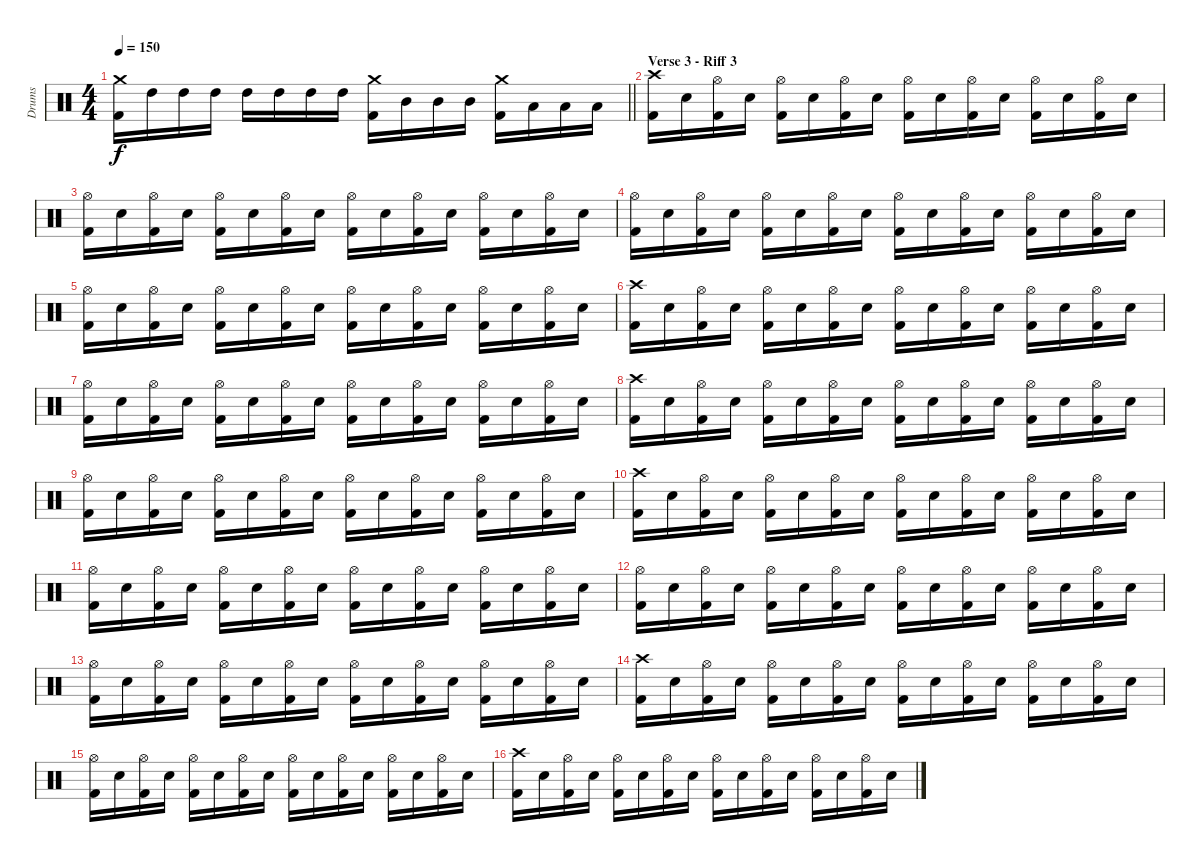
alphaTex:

\track ("Drums" "Drums") {instrument percussion}
\staff {score}
\articulation defaults
\ts (4 4)
\tempo 150
\clef neutral
\barLineRight lightlight
\ks c
("Crash medium (hit)" "Kick (hit) 2").16{dy f} "High Tom (hit)".16 "High Tom (hit)".16 "High Tom (hit)".16 "High Tom (hit)".16 "High Tom (hit)".16 "High Tom (hit)".16 "High Tom (hit)".16 ("Crash medium (hit)" "Kick (hit) 2").16 "Mid Tom (hit)".16 "Mid Tom (hit)".16 "Mid Tom (hit)".16 ("Crash medium (hit)" "Kick (hit) 2").16 "Low Tom (hit)".16 "Low Tom (hit)".16 "Low Tom (hit)".16 |
\section ("" "Verse 3 - Riff 3")
("Crash high (hit)" "Kick (hit) 2").16 "Electric Snare (hit)".16 ("Hi-Hat (open)" "Kick (hit) 2").16 "Electric Snare (hit)".16 ("Hi-Hat (open)" "Kick (hit) 2").16 "Electric Snare (hit)".16 ("Hi-Hat (open)" "Kick (hit) 2").16 "Electric Snare (hit)".16 ("Hi-Hat (open)" "Kick (hit) 2").16 "Electric Snare (hit)".16 ("Hi-Hat (open)" "Kick (hit) 2").16 "Electric Snare (hit)".16 ("Hi-Hat (open)" "Kick (hit) 2").16 "Electric Snare (hit)".16 ("Hi-Hat (open)" "Kick (hit) 2").16 "Electric Snare (hit)".16 |
("Hi-Hat (open)" "Kick (hit) 2").16 "Electric Snare (hit)".16 ("Hi-Hat (open)" "Kick (hit) 2").16 "Electric Snare (hit)".16 ("Hi-Hat (open)" "Kick (hit) 2").16 "Electric Snare (hit)".16 ("Hi-Hat (open)" "Kick (hit) 2").16 "Electric Snare (hit)".16 ("Hi-Hat (open)" "Kick (hit) 2").16 "Electric Snare (hit)".16 ("Hi-Hat (open)" "Kick (hit) 2").16 "Electric Snare (hit)".16 ("Hi-Hat (open)" "Kick (hit) 2").16 "Electric Snare (hit)".16 ("Hi-Hat (open)" "Kick (hit) 2").16 "Electric Snare (hit)".16 |
("Hi-Hat (open)" "Kick (hit) 2").16 "Electric Snare (hit)".16 ("Hi-Hat (open)" "Kick (hit) 2").16 "Electric Snare (hit)".16 ("Hi-Hat (open)" "Kick (hit) 2").16 "Electric Snare (hit)".16 ("Hi-Hat (open)" "Kick (hit) 2").16 "Electric Snare (hit)".16 ("Hi-Hat (open)" "Kick (hit) 2").16 "Electric Snare (hit)".16 ("Hi-Hat (open)" "Kick (hit) 2").16 "Electric Snare (hit)".16 ("Hi-Hat (open)" "Kick (hit) 2").16 "Electric Snare (hit)".16 ("Hi-Hat (open)" "Kick (hit) 2").16 "Electric Snare (hit)".16 |
("Hi-Hat (open)" "Kick (hit) 2").16 "Electric Snare (hit)".16 ("Hi-Hat (open)" "Kick (hit) 2").16 "Electric Snare (hit)".16 ("Hi-Hat (open)" "Kick (hit) 2").16 "Electric Snare (hit)".16 ("Hi-Hat (open)" "Kick (hit) 2").16 "Electric Snare (hit)".16 ("Hi-Hat (open)" "Kick (hit) 2").16 "Electric Snare (hit)".16 ("Hi-Hat (open)" "Kick (hit) 2").16 "Electric Snare (hit)".16 ("Hi-Hat (open)" "Kick (hit) 2").16 "Electric Snare (hit)".16 ("Hi-Hat (open)" "Kick (hit) 2").16 "Electric Snare (hit)".16 |
("Crash high (hit)" "Kick (hit) 2").16 "Electric Snare (hit)".16 ("Hi-Hat (open)" "Kick (hit) 2").16 "Electric Snare (hit)".16 ("Hi-Hat (open)" "Kick (hit) 2").16 "Electric Snare (hit)".16 ("Hi-Hat (open)" "Kick (hit) 2").16 "Electric Snare (hit)".16 ("Hi-Hat (open)" "Kick (hit) 2").16 "Electric Snare (hit)".16 ("Hi-Hat (open)" "Kick (hit) 2").16 "Electric Snare (hit)".16 ("Hi-Hat (open)" "Kick (hit) 2").16 "Electric Snare (hit)".16 ("Hi-Hat (open)" "Kick (hit) 2").16 "Electric Snare (hit)".16 |
("Hi-Hat (open)" "Kick (hit) 2").16 "Electric Snare (hit)".16 ("Hi-Hat (open)" "Kick (hit) 2").16 "Electric Snare (hit)".16 ("Hi-Hat (open)" "Kick (hit) 2").16 "Electric Snare (hit)".16 ("Hi-Hat (open)" "Kick (hit) 2").16 "Electric Snare (hit)".16 ("Hi-Hat (open)" "Kick (hit) 2").16 "Electric Snare (hit)".16 ("Hi-Hat (open)" "Kick (hit) 2").16 "Electric Snare (hit)".16 ("Hi-Hat (open)" "Kick (hit) 2").16 "Electric Snare (hit)".16 ("Hi-Hat (open)" "Kick (hit) 2").16 "Electric Snare (hit)".16 |
("Crash high (hit)" "Kick (hit) 2").16 "Electric Snare (hit)".16 ("Hi-Hat (open)" "Kick (hit) 2").16 "Electric Snare (hit)".16 ("Hi-Hat (open)" "Kick (hit) 2").16 "Electric Snare (hit)".16 ("Hi-Hat (open)" "Kick (hit) 2").16 "Electric Snare (hit)".16 ("Hi-Hat (open)" "Kick (hit) 2").16 "Electric Snare (hit)".16 ("Hi-Hat (open)" "Kick (hit) 2").16 "Electric Snare (hit)".16 ("Hi-Hat (open)" "Kick (hit) 2").16 "Electric Snare (hit)".16 ("Hi-Hat (open)" "Kick (hit) 2").16 "Electric Snare (hit)".16 |
("Hi-Hat (open)" "Kick (hit) 2").16 "Electric Snare (hit)".16 ("Hi-Hat (open)" "Kick (hit) 2").16 "Electric Snare (hit)".16 ("Hi-Hat (open)" "Kick (hit) 2").16 "Electric Snare (hit)".16 ("Hi-Hat (open)" "Kick (hit) 2").16 "Electric Snare (hit)".16 ("Hi-Hat (open)" "Kick (hit) 2").16 "Electric Snare (hit)".16 ("Hi-Hat (open)" "Kick (hit) 2").16 "Electric Snare (hit)".16 ("Hi-Hat (open)" "Kick (hit) 2").16 "Electric Snare (hit)".16 ("Hi-Hat (open)" "Kick (hit) 2").16 "Electric Snare (hit)".16 |
("Crash high (hit)" "Kick (hit) 2").16 "Electric Snare (hit)".16 ("Hi-Hat (open)" "Kick (hit) 2").16 "Electric Snare (hit)".16 ("Hi-Hat (open)" "Kick (hit) 2").16 "Electric Snare (hit)".16 ("Hi-Hat (open)" "Kick (hit) 2").16 "Electric Snare (hit)".16 ("Hi-Hat (open)" "Kick (hit) 2").16 "Electric Snare (hit)".16 ("Hi-Hat (open)" "Kick (hit) 2").16 "Electric Snare (hit)".16 ("Hi-Hat (open)" "Kick (hit) 2").16 "Electric Snare (hit)".16 ("Hi-Hat (open)" "Kick (hit) 2").16 "Electric Snare (hit)".16 |
("Hi-Hat (open)" "Kick (hit) 2").16 "Electric Snare (hit)".16 ("Hi-Hat (open)" "Kick (hit) 2").16 "Electric Snare (hit)".16 ("Hi-Hat (open)" "Kick (hit) 2").16 "Electric Snare (hit)".16 ("Hi-Hat (open)" "Kick (hit) 2").16 "Electric Snare (hit)".16 ("Hi-Hat (open)" "Kick (hit) 2").16 "Electric Snare (hit)".16 ("Hi-Hat (open)" "Kick (hit) 2").16 "Electric Snare (hit)".16 ("Hi-Hat (open)" "Kick (hit) 2").16 "Electric Snare (hit)".16 ("Hi-Hat (open)" "Kick (hit) 2").16 "Electric Snare (hit)".16 |
("Hi-Hat (open)" "Kick (hit) 2").16 "Electric Snare (hit)".16 ("Hi-Hat (open)" "Kick (hit) 2").16 "Electric Snare (hit)".16 ("Hi-Hat (open)" "Kick (hit) 2").16 "Electric Snare (hit)".16 ("Hi-Hat (open)" "Kick (hit) 2").16 "Electric Snare (hit)".16 ("Hi-Hat (open)" "Kick (hit) 2").16 "Electric Snare (hit)".16 ("Hi-Hat (open)" "Kick (hit) 2").16 "Electric Snare (hit)".16 ("Hi-Hat (open)" "Kick (hit) 2").16 "Electric Snare (hit)".16 ("Hi-Hat (open)" "Kick (hit) 2").16 "Electric Snare (hit)".16 |
("Hi-Hat (open)" "Kick (hit) 2").16 "Electric Snare (hit)".16 ("Hi-Hat (open)" "Kick (hit) 2").16 "Electric Snare (hit)".16 ("Hi-Hat (open)" "Kick (hit) 2").16 "Electric Snare (hit)".16 ("Hi-Hat (open)" "Kick (hit) 2").16 "Electric Snare (hit)".16 ("Hi-Hat (open)" "Kick (hit) 2").16 "Electric Snare (hit)".16 ("Hi-Hat (open)" "Kick (hit) 2").16 "Electric Snare (hit)".16 ("Hi-Hat (open)" "Kick (hit) 2").16 "Electric Snare (hit)".16 ("Hi-Hat (open)" "Kick (hit) 2").16 "Electric Snare (hit)".16 |
("Crash high (hit)" "Kick (hit) 2").16 "Electric Snare (hit)".16 ("Hi-Hat (open)" "Kick (hit) 2").16 "Electric Snare (hit)".16 ("Hi-Hat (open)" "Kick (hit) 2").16 "Electric Snare (hit)".16 ("Hi-Hat (open)" "Kick (hit) 2").16 "Electric Snare (hit)".16 ("Hi-Hat (open)" "Kick (hit) 2").16 "Electric Snare (hit)".16 ("Hi-Hat (open)" "Kick (hit) 2").16 "Electric Snare (hit)".16 ("Hi-Hat (open)" "Kick (hit) 2").16 "Electric Snare (hit)".16 ("Hi-Hat (open)" "Kick (hit) 2").16 "Electric Snare (hit)".16 |
("Hi-Hat (open)" "Kick (hit) 2").16 "Electric Snare (hit)".16 ("Hi-Hat (open)" "Kick (hit) 2").16 "Electric Snare (hit)".16 ("Hi-Hat (open)" "Kick (hit) 2").16 "Electric Snare (hit)".16 ("Hi-Hat (open)" "Kick (hit) 2").16 "Electric Snare (hit)".16 ("Hi-Hat (open)" "Kick (hit) 2").16 "Electric Snare (hit)".16 ("Hi-Hat (open)" "Kick (hit) 2").16 "Electric Snare (hit)".16 ("Hi-Hat (open)" "Kick (hit) 2").16 "Electric Snare (hit)".16 ("Hi-Hat (open)" "Kick (hit) 2").16 "Electric Snare (hit)".16 |
("Crash high (hit)" "Kick (hit) 2").16 "Electric Snare (hit)".16 ("Hi-Hat (open)" "Kick (hit) 2").16 "Electric Snare (hit)".16 ("Hi-Hat (open)" "Kick (hit) 2").16 "Electric Snare (hit)".16 ("Hi-Hat (open)" "Kick (hit) 2").16 "Electric Snare (hit)".16 ("Hi-Hat (open)" "Kick (hit) 2").16 "Electric Snare (hit)".16 ("Hi-Hat (open)" "Kick (hit) 2").16 "Electric Snare (hit)".16 ("Hi-Hat (open)" "Kick (hit) 2").16 "Electric Snare (hit)".16 ("Hi-Hat (open)" "Kick (hit) 2").16 "Electric Snare (hit)".16
